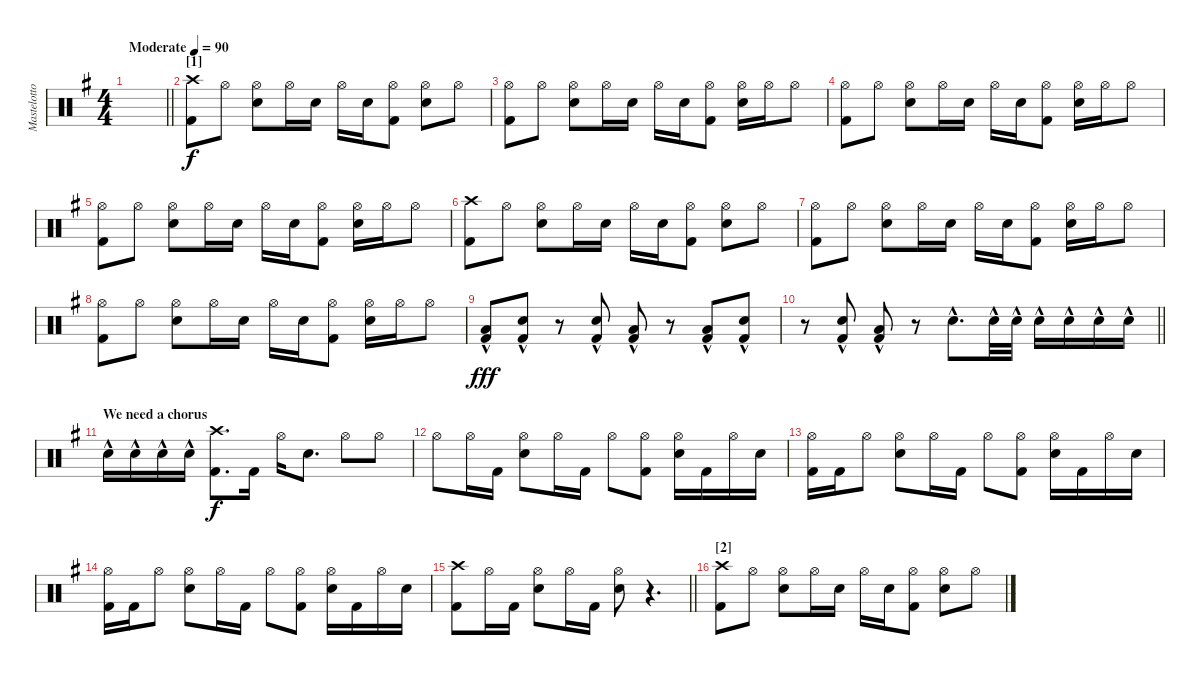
\track ("Mastelotto" "Mastelotto") {instrument percussion}
\staff {score}
\articulation defaults
\ts (4 4)
\tempo (90 "Moderate")
\clef neutral
\barLineRight lightlight
\ks eminor
|
\section ("" "[1]")
("Crash high (hit)" "Kick (hit) 2").8 "Hi-Hat (open)".8 ("Hi-Hat (open)" "Electric Snare (hit)").8 "Hi-Hat (open)".16 "Electric Snare (hit)".16 "Hi-Hat (open)".16 "Electric Snare (hit)".16 ("Hi-Hat (open)" "Kick (hit) 2").8 ("Hi-Hat (open)" "Electric Snare (hit)").8 "Hi-Hat (open)".8 |
("Hi-Hat (open)" "Kick (hit) 2").8 "Hi-Hat (open)".8 ("Hi-Hat (open)" "Electric Snare (hit)").8 "Hi-Hat (open)".16 "Electric Snare (hit)".16 "Hi-Hat (open)".16 "Electric Snare (hit)".16 ("Hi-Hat (open)" "Kick (hit) 2").8 ("Hi-Hat (open)" "Electric Snare (hit)").16 "Hi-Hat (open)".16 "Hi-Hat (open)".8 |
("Hi-Hat (open)" "Kick (hit) 2").8 "Hi-Hat (open)".8 ("Hi-Hat (open)" "Electric Snare (hit)").8 "Hi-Hat (open)".16 "Electric Snare (hit)".16 "Hi-Hat (open)".16 "Electric Snare (hit)".16 ("Hi-Hat (open)" "Kick (hit) 2").8 ("Hi-Hat (open)" "Electric Snare (hit)").16 "Hi-Hat (open)".16 "Hi-Hat (open)".8 |
("Hi-Hat (open)" "Kick (hit) 2").8 "Hi-Hat (open)".8 ("Hi-Hat (open)" "Electric Snare (hit)").8 "Hi-Hat (open)".16 "Electric Snare (hit)".16 "Hi-Hat (open)".16 "Electric Snare (hit)".16 ("Hi-Hat (open)" "Kick (hit) 2").8 ("Hi-Hat (open)" "Electric Snare (hit)").16 "Hi-Hat (open)".16 "Hi-Hat (open)".8 |
("Crash high (hit)" "Kick (hit) 2").8 "Hi-Hat (open)".8 ("Hi-Hat (open)" "Electric Snare (hit)").8 "Hi-Hat (open)".16 "Electric Snare (hit)".16 "Hi-Hat (open)".16 "Electric Snare (hit)".16 ("Hi-Hat (open)" "Kick (hit) 2").8 ("Hi-Hat (open)" "Electric Snare (hit)").8 "Hi-Hat (open)".8 |
("Hi-Hat (open)" "Kick (hit) 2").8 "Hi-Hat (open)".8 ("Hi-Hat (open)" "Electric Snare (hit)").8 "Hi-Hat (open)".16 "Electric Snare (hit)".16 "Hi-Hat (open)".16 "Electric Snare (hit)".16 ("Hi-Hat (open)" "Kick (hit) 2").8 ("Hi-Hat (open)" "Electric Snare (hit)").16 "Hi-Hat (open)".16 "Hi-Hat (open)".8 |
("Hi-Hat (open)" "Kick (hit) 2").8 "Hi-Hat (open)".8 ("Hi-Hat (open)" "Electric Snare (hit)").8 "Hi-Hat (open)".16 "Electric Snare (hit)".16 "Hi-Hat (open)".16 "Electric Snare (hit)".16 ("Hi-Hat (open)" "Kick (hit) 2").8 ("Hi-Hat (open)" "Electric Snare (hit)").16 "Hi-Hat (open)".16 "Hi-Hat (open)".8 |
("Low Floor Tom (hit)"{hac} "Kick (hit) 2").8{dy fff} ("Electric Snare (hit)"{hac} "Kick (hit) 2").8 r.8 ("Electric Snare (hit)"{hac} "Kick (hit) 2").8 ("Low Floor Tom (hit)"{hac} "Kick (hit) 2").8 r.8 ("Low Floor Tom (hit)"{hac} "Kick (hit) 2").8 ("Electric Snare (hit)"{hac} "Kick (hit) 2").8 |
\barLineRight lightlight
r.8 ("Electric Snare (hit)"{hac} "Kick (hit) 2").8 ("Low Floor Tom (hit)"{hac} "Kick (hit) 2").8 r.8 "Electric Snare (hit)"{hac}.8{d} "Electric Snare (hit)"{hac}.32 "Electric Snare (hit)"{hac}.32 "Electric Snare (hit)"{hac}.16 "Electric Snare (hit)"{hac}.16 "Electric Snare (hit)"{hac}.16 "Electric Snare (hit)"{hac}.16 |
\section ("" "We need a chorus")
"Electric Snare (hit)"{hac}.16 "Electric Snare (hit)"{hac}.16 "Electric Snare (hit)"{hac}.16 "Electric Snare (hit)"{hac}.16 ("Crash high (hit)" "Kick (hit) 2").8{d dy f} "Kick (hit) 2".16 "Hi-Hat (open)".16 "Electric Snare (hit)".8{d} "Hi-Hat (open)".8 "Hi-Hat (open)".8 |
"Hi-Hat (open)".8 "Hi-Hat (open)".16 "Kick (hit) 2".16 ("Hi-Hat (open)" "Electric Snare (hit)").8 "Hi-Hat (open)".16 "Kick (hit) 2".16 "Hi-Hat (open)".8 ("Hi-Hat (open)" "Kick (hit) 2").8 ("Hi-Hat (open)" "Electric Snare (hit)").16 "Kick (hit) 2".16 "Hi-Hat (open)".16 "Electric Snare (hit)".16 |
("Hi-Hat (open)" "Kick (hit) 2").16 "Kick (hit) 2".16 "Hi-Hat (open)".8 ("Hi-Hat (open)" "Electric Snare (hit)").8 "Hi-Hat (open)".16 "Kick (hit) 2".16 "Hi-Hat (open)".8 ("Hi-Hat (open)" "Kick (hit) 2").8 ("Hi-Hat (open)" "Electric Snare (hit)").16 "Kick (hit) 2".16 "Hi-Hat (open)".16 "Electric Snare (hit)".16 |
("Hi-Hat (open)" "Kick (hit) 2").16 "Kick (hit) 2".16 "Hi-Hat (open)".8 ("Hi-Hat (open)" "Electric Snare (hit)").8 "Hi-Hat (open)".16 "Kick (hit) 2".16 "Hi-Hat (open)".8 ("Hi-Hat (open)" "Kick (hit) 2").8 ("Hi-Hat (open)" "Electric Snare (hit)").16 "Kick (hit) 2".16 "Hi-Hat (open)".16 "Electric Snare (hit)".16 |
\barLineRight lightlight
("Crash high (hit)" "Kick (hit) 2").8 "Hi-Hat (open)".16 "Kick (hit) 2".16 ("Hi-Hat (open)" "Electric Snare (hit)").8 "Hi-Hat (open)".16 "Kick (hit) 2".16 ("Hi-Hat (open)" "Electric Snare (hit)").8 r.4{d} |
\section ("" "[2]")
("Crash high (hit)" "Kick (hit) 2").8 "Hi-Hat (open)".8 ("Hi-Hat (open)" "Electric Snare (hit)").8 "Hi-Hat (open)".16 "Electric Snare (hit)".16 "Hi-Hat (open)".16 "Electric Snare (hit)".16 ("Hi-Hat (open)" "Kick (hit) 2").8 ("Hi-Hat (open)" "Electric Snare (hit)").8 "Hi-Hat (open)".8
